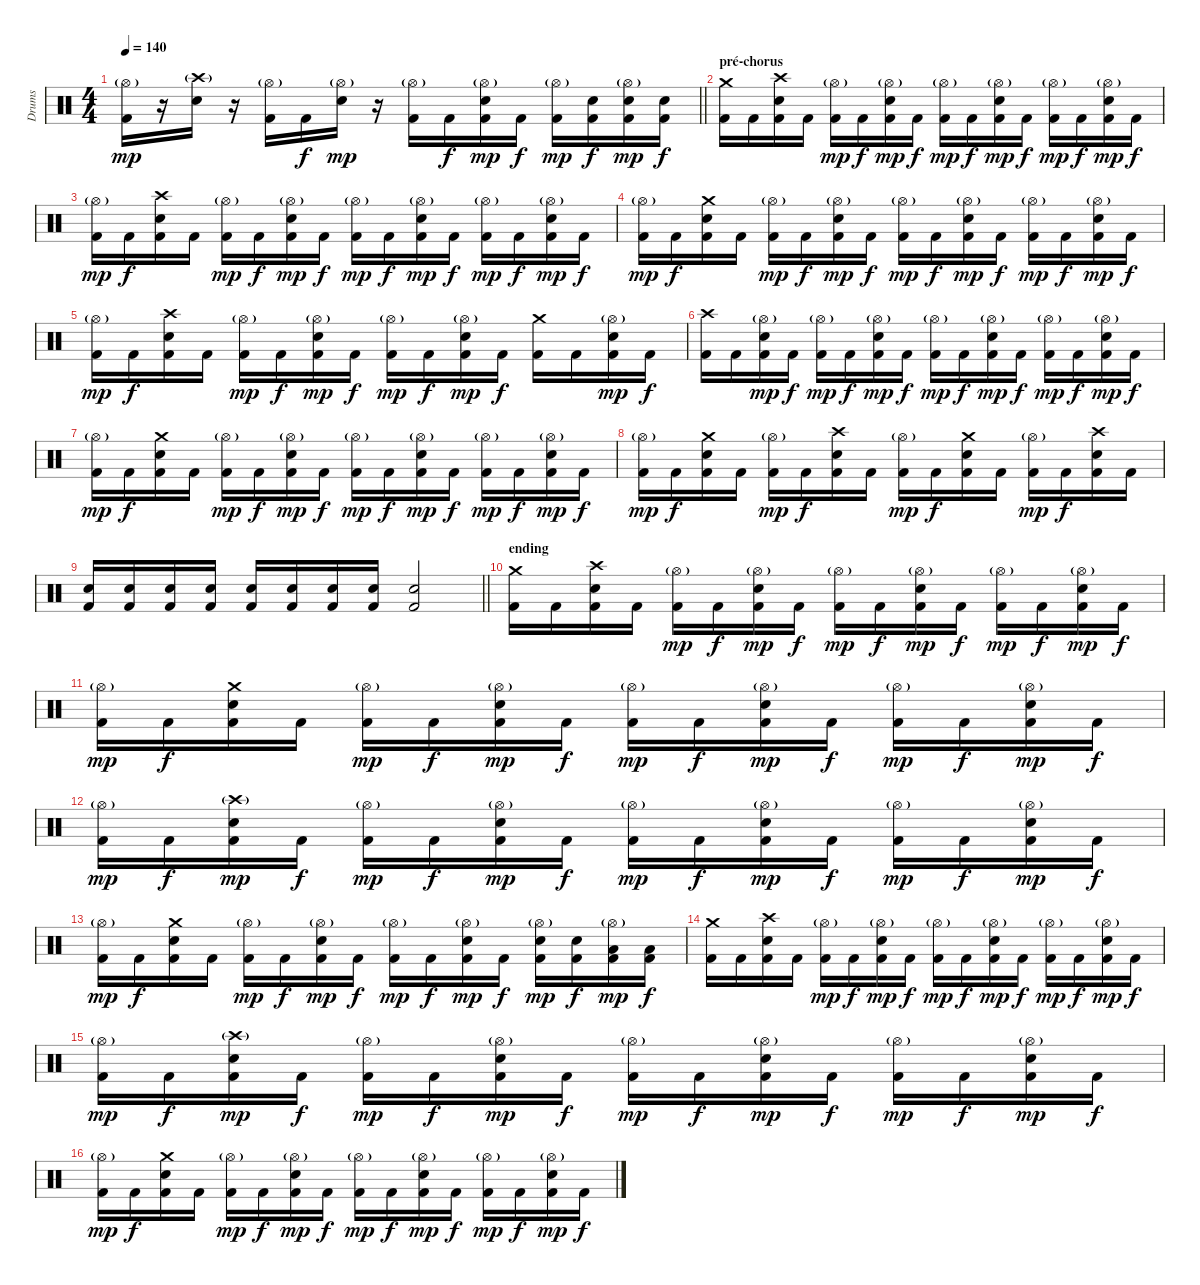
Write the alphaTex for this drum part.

\track ("Drums" "Drums") {instrument percussion}
\staff {score}
\articulation defaults
\ts (4 4)
\tempo 140
\clef neutral
\barLineRight lightlight
\ks c
("Hi-Hat (open)"{g} "Kick (hit) 2").16{dy mp} r.16 ("Crash high (hit)"{g} "Electric Snare (hit)").16 r.16 ("Hi-Hat (open)"{g} "Kick (hit) 2").16 "Kick (hit) 2".16{dy f} ("Hi-Hat (open)"{g} "Electric Snare (hit)").16{dy mp} r.16 ("Hi-Hat (open)"{g} "Kick (hit) 2").16 "Kick (hit) 2".16{dy f} ("Hi-Hat (open)"{g} "Electric Snare (hit)" "Kick (hit) 2").16{dy mp} "Kick (hit) 2".16{dy f} ("Hi-Hat (open)"{g} "Kick (hit) 2").16{dy mp} ("Electric Snare (hit)" "Kick (hit) 2").16{dy f} ("Hi-Hat (open)"{g} "Electric Snare (hit)" "Kick (hit) 2").16{dy mp} ("Electric Snare (hit)" "Kick (hit) 2").16{dy f} |
\section ("" "pré-chorus")
("Crash medium (hit)" "Kick (hit) 2").16 "Kick (hit) 2".16 ("Crash high (hit)" "Electric Snare (hit)" "Kick (hit) 2").16 "Kick (hit) 2".16 ("Hi-Hat (open)"{g} "Kick (hit) 2").16{dy mp} "Kick (hit) 2".16{dy f} ("Hi-Hat (open)"{g} "Electric Snare (hit)" "Kick (hit) 2").16{dy mp} "Kick (hit) 2".16{dy f} ("Hi-Hat (open)"{g} "Kick (hit) 2").16{dy mp} "Kick (hit) 2".16{dy f} ("Hi-Hat (open)"{g} "Electric Snare (hit)" "Kick (hit) 2").16{dy mp} "Kick (hit) 2".16{dy f} ("Hi-Hat (open)"{g} "Kick (hit) 2").16{dy mp} "Kick (hit) 2".16{dy f} ("Hi-Hat (open)"{g} "Electric Snare (hit)" "Kick (hit) 2").16{dy mp} "Kick (hit) 2".16{dy f} |
("Hi-Hat (open)"{g} "Kick (hit) 2").16{dy mp} "Kick (hit) 2".16{dy f} ("Crash high (hit)" "Electric Snare (hit)" "Kick (hit) 2").16 "Kick (hit) 2".16 ("Hi-Hat (open)"{g} "Kick (hit) 2").16{dy mp} "Kick (hit) 2".16{dy f} ("Hi-Hat (open)"{g} "Electric Snare (hit)" "Kick (hit) 2").16{dy mp} "Kick (hit) 2".16{dy f} ("Hi-Hat (open)"{g} "Kick (hit) 2").16{dy mp} "Kick (hit) 2".16{dy f} ("Hi-Hat (open)"{g} "Electric Snare (hit)" "Kick (hit) 2").16{dy mp} "Kick (hit) 2".16{dy f} ("Hi-Hat (open)"{g} "Kick (hit) 2").16{dy mp} "Kick (hit) 2".16{dy f} ("Hi-Hat (open)"{g} "Electric Snare (hit)" "Kick (hit) 2").16{dy mp} "Kick (hit) 2".16{dy f} |
("Hi-Hat (open)"{g} "Kick (hit) 2").16{dy mp} "Kick (hit) 2".16{dy f} ("Crash medium (hit)" "Electric Snare (hit)" "Kick (hit) 2").16 "Kick (hit) 2".16 ("Hi-Hat (open)"{g} "Kick (hit) 2").16{dy mp} "Kick (hit) 2".16{dy f} ("Hi-Hat (open)"{g} "Electric Snare (hit)" "Kick (hit) 2").16{dy mp} "Kick (hit) 2".16{dy f} ("Hi-Hat (open)"{g} "Kick (hit) 2").16{dy mp} "Kick (hit) 2".16{dy f} ("Hi-Hat (open)"{g} "Electric Snare (hit)" "Kick (hit) 2").16{dy mp} "Kick (hit) 2".16{dy f} ("Hi-Hat (open)"{g} "Kick (hit) 2").16{dy mp} "Kick (hit) 2".16{dy f} ("Hi-Hat (open)"{g} "Electric Snare (hit)" "Kick (hit) 2").16{dy mp} "Kick (hit) 2".16{dy f} |
("Hi-Hat (open)"{g} "Kick (hit) 2").16{dy mp} "Kick (hit) 2".16{dy f} ("Crash high (hit)" "Electric Snare (hit)" "Kick (hit) 2").16 "Kick (hit) 2".16 ("Hi-Hat (open)"{g} "Kick (hit) 2").16{dy mp} "Kick (hit) 2".16{dy f} ("Hi-Hat (open)"{g} "Electric Snare (hit)" "Kick (hit) 2").16{dy mp} "Kick (hit) 2".16{dy f} ("Hi-Hat (open)"{g} "Kick (hit) 2").16{dy mp} "Kick (hit) 2".16{dy f} ("Hi-Hat (open)"{g} "Electric Snare (hit)" "Kick (hit) 2").16{dy mp} "Kick (hit) 2".16{dy f} ("Crash medium (hit)" "Kick (hit) 2").16 "Kick (hit) 2".16 ("Hi-Hat (open)"{g} "Electric Snare (hit)" "Kick (hit) 2").16{dy mp} "Kick (hit) 2".16{dy f} |
("Crash high (hit)" "Kick (hit) 2").16 "Kick (hit) 2".16 ("Hi-Hat (open)"{g} "Electric Snare (hit)" "Kick (hit) 2").16{dy mp} "Kick (hit) 2".16{dy f} ("Hi-Hat (open)"{g} "Kick (hit) 2").16{dy mp} "Kick (hit) 2".16{dy f} ("Hi-Hat (open)"{g} "Electric Snare (hit)" "Kick (hit) 2").16{dy mp} "Kick (hit) 2".16{dy f} ("Hi-Hat (open)"{g} "Kick (hit) 2").16{dy mp} "Kick (hit) 2".16{dy f} ("Hi-Hat (open)"{g} "Electric Snare (hit)" "Kick (hit) 2").16{dy mp} "Kick (hit) 2".16{dy f} ("Hi-Hat (open)"{g} "Kick (hit) 2").16{dy mp} "Kick (hit) 2".16{dy f} ("Hi-Hat (open)"{g} "Electric Snare (hit)" "Kick (hit) 2").16{dy mp} "Kick (hit) 2".16{dy f} |
("Hi-Hat (open)"{g} "Kick (hit) 2").16{dy mp} "Kick (hit) 2".16{dy f} ("Crash medium (hit)" "Electric Snare (hit)" "Kick (hit) 2").16 "Kick (hit) 2".16 ("Hi-Hat (open)"{g} "Kick (hit) 2").16{dy mp} "Kick (hit) 2".16{dy f} ("Hi-Hat (open)"{g} "Electric Snare (hit)" "Kick (hit) 2").16{dy mp} "Kick (hit) 2".16{dy f} ("Hi-Hat (open)"{g} "Kick (hit) 2").16{dy mp} "Kick (hit) 2".16{dy f} ("Hi-Hat (open)"{g} "Electric Snare (hit)" "Kick (hit) 2").16{dy mp} "Kick (hit) 2".16{dy f} ("Hi-Hat (open)"{g} "Kick (hit) 2").16{dy mp} "Kick (hit) 2".16{dy f} ("Hi-Hat (open)"{g} "Electric Snare (hit)" "Kick (hit) 2").16{dy mp} "Kick (hit) 2".16{dy f} |
("Hi-Hat (open)"{g} "Kick (hit) 2").16{dy mp} "Kick (hit) 2".16{dy f} ("Crash medium (hit)" "Electric Snare (hit)" "Kick (hit) 2").16 "Kick (hit) 2".16 ("Hi-Hat (open)"{g} "Kick (hit) 2").16{dy mp} "Kick (hit) 2".16{dy f} ("Crash high (hit)" "Electric Snare (hit)" "Kick (hit) 2").16 "Kick (hit) 2".16 ("Hi-Hat (open)"{g} "Kick (hit) 2").16{dy mp} "Kick (hit) 2".16{dy f} ("Crash medium (hit)" "Electric Snare (hit)" "Kick (hit) 2").16 "Kick (hit) 2".16 ("Hi-Hat (open)"{g} "Kick (hit) 2").16{dy mp} "Kick (hit) 2".16{dy f} ("Crash high (hit)" "Electric Snare (hit)" "Kick (hit) 2").16 "Kick (hit) 2".16 |
\barLineRight lightlight
("Electric Snare (hit)" "Kick (hit) 2").16 ("Electric Snare (hit)" "Kick (hit) 2").16 ("Electric Snare (hit)" "Kick (hit) 2").16 ("Electric Snare (hit)" "Kick (hit) 2").16 ("Electric Snare (hit)" "Kick (hit) 2").16 ("Electric Snare (hit)" "Kick (hit) 2").16 ("Electric Snare (hit)" "Kick (hit) 2").16 ("Electric Snare (hit)" "Kick (hit) 2").16 ("Electric Snare (hit)" "Kick (hit) 2").2 |
\section ("" "ending")
("Crash medium (hit)" "Kick (hit) 2").16 "Kick (hit) 2".16 ("Crash high (hit)" "Electric Snare (hit)" "Kick (hit) 2").16 "Kick (hit) 2".16 ("Hi-Hat (open)"{g} "Kick (hit) 2").16{dy mp} "Kick (hit) 2".16{dy f} ("Hi-Hat (open)"{g} "Electric Snare (hit)" "Kick (hit) 2").16{dy mp} "Kick (hit) 2".16{dy f} ("Hi-Hat (open)"{g} "Kick (hit) 2").16{dy mp} "Kick (hit) 2".16{dy f} ("Hi-Hat (open)"{g} "Electric Snare (hit)" "Kick (hit) 2").16{dy mp} "Kick (hit) 2".16{dy f} ("Hi-Hat (open)"{g} "Kick (hit) 2").16{dy mp} "Kick (hit) 2".16{dy f} ("Hi-Hat (open)"{g} "Electric Snare (hit)" "Kick (hit) 2").16{dy mp} "Kick (hit) 2".16{dy f} |
("Hi-Hat (open)"{g} "Kick (hit) 2").16{dy mp} "Kick (hit) 2".16{dy f} ("Crash medium (hit)" "Electric Snare (hit)" "Kick (hit) 2").16 "Kick (hit) 2".16 ("Hi-Hat (open)"{g} "Kick (hit) 2").16{dy mp} "Kick (hit) 2".16{dy f} ("Hi-Hat (open)"{g} "Electric Snare (hit)" "Kick (hit) 2").16{dy mp} "Kick (hit) 2".16{dy f} ("Hi-Hat (open)"{g} "Kick (hit) 2").16{dy mp} "Kick (hit) 2".16{dy f} ("Hi-Hat (open)"{g} "Electric Snare (hit)" "Kick (hit) 2").16{dy mp} "Kick (hit) 2".16{dy f} ("Hi-Hat (open)"{g} "Kick (hit) 2").16{dy mp} "Kick (hit) 2".16{dy f} ("Hi-Hat (open)"{g} "Electric Snare (hit)" "Kick (hit) 2").16{dy mp} "Kick (hit) 2".16{dy f} |
("Hi-Hat (open)"{g} "Kick (hit) 2").16{dy mp} "Kick (hit) 2".16{dy f} ("Crash high (hit)"{g} "Electric Snare (hit)" "Kick (hit) 2").16{dy mp} "Kick (hit) 2".16{dy f} ("Hi-Hat (open)"{g} "Kick (hit) 2").16{dy mp} "Kick (hit) 2".16{dy f} ("Hi-Hat (open)"{g} "Electric Snare (hit)" "Kick (hit) 2").16{dy mp} "Kick (hit) 2".16{dy f} ("Hi-Hat (open)"{g} "Kick (hit) 2").16{dy mp} "Kick (hit) 2".16{dy f} ("Hi-Hat (open)"{g} "Electric Snare (hit)" "Kick (hit) 2").16{dy mp} "Kick (hit) 2".16{dy f} ("Hi-Hat (open)"{g} "Kick (hit) 2").16{dy mp} "Kick (hit) 2".16{dy f} ("Hi-Hat (open)"{g} "Electric Snare (hit)" "Kick (hit) 2").16{dy mp} "Kick (hit) 2".16{dy f} |
("Hi-Hat (open)"{g} "Kick (hit) 2").16{dy mp} "Kick (hit) 2".16{dy f} ("Crash medium (hit)" "Electric Snare (hit)" "Kick (hit) 2").16 "Kick (hit) 2".16 ("Hi-Hat (open)"{g} "Kick (hit) 2").16{dy mp} "Kick (hit) 2".16{dy f} ("Hi-Hat (open)"{g} "Electric Snare (hit)" "Kick (hit) 2").16{dy mp} "Kick (hit) 2".16{dy f} ("Hi-Hat (open)"{g} "Kick (hit) 2").16{dy mp} "Kick (hit) 2".16{dy f} ("Hi-Hat (open)"{g} "Electric Snare (hit)" "Kick (hit) 2").16{dy mp} "Kick (hit) 2".16{dy f} ("Hi-Hat (open)"{g} "Electric Snare (hit)" "Kick (hit) 2").16{dy mp} ("Electric Snare (hit)" "Kick (hit) 2").16{dy f} ("Hi-Hat (open)"{g} "Low Tom (hit)" "Kick (hit) 2").16{dy mp} ("Low Tom (hit)" "Kick (hit) 2").16{dy f} |
("Crash medium (hit)" "Kick (hit) 2").16 "Kick (hit) 2".16 ("Crash high (hit)" "Electric Snare (hit)" "Kick (hit) 2").16 "Kick (hit) 2".16 ("Hi-Hat (open)"{g} "Kick (hit) 2").16{dy mp} "Kick (hit) 2".16{dy f} ("Hi-Hat (open)"{g} "Electric Snare (hit)" "Kick (hit) 2").16{dy mp} "Kick (hit) 2".16{dy f} ("Hi-Hat (open)"{g} "Kick (hit) 2").16{dy mp} "Kick (hit) 2".16{dy f} ("Hi-Hat (open)"{g} "Electric Snare (hit)" "Kick (hit) 2").16{dy mp} "Kick (hit) 2".16{dy f} ("Hi-Hat (open)"{g} "Kick (hit) 2").16{dy mp} "Kick (hit) 2".16{dy f} ("Hi-Hat (open)"{g} "Electric Snare (hit)" "Kick (hit) 2").16{dy mp} "Kick (hit) 2".16{dy f} |
("Hi-Hat (open)"{g} "Kick (hit) 2").16{dy mp} "Kick (hit) 2".16{dy f} ("Crash high (hit)"{g} "Electric Snare (hit)" "Kick (hit) 2").16{dy mp} "Kick (hit) 2".16{dy f} ("Hi-Hat (open)"{g} "Kick (hit) 2").16{dy mp} "Kick (hit) 2".16{dy f} ("Hi-Hat (open)"{g} "Electric Snare (hit)" "Kick (hit) 2").16{dy mp} "Kick (hit) 2".16{dy f} ("Hi-Hat (open)"{g} "Kick (hit) 2").16{dy mp} "Kick (hit) 2".16{dy f} ("Hi-Hat (open)"{g} "Electric Snare (hit)" "Kick (hit) 2").16{dy mp} "Kick (hit) 2".16{dy f} ("Hi-Hat (open)"{g} "Kick (hit) 2").16{dy mp} "Kick (hit) 2".16{dy f} ("Hi-Hat (open)"{g} "Electric Snare (hit)" "Kick (hit) 2").16{dy mp} "Kick (hit) 2".16{dy f} |
("Hi-Hat (open)"{g} "Kick (hit) 2").16{dy mp} "Kick (hit) 2".16{dy f} ("Crash medium (hit)" "Electric Snare (hit)" "Kick (hit) 2").16 "Kick (hit) 2".16 ("Hi-Hat (open)"{g} "Kick (hit) 2").16{dy mp} "Kick (hit) 2".16{dy f} ("Hi-Hat (open)"{g} "Electric Snare (hit)" "Kick (hit) 2").16{dy mp} "Kick (hit) 2".16{dy f} ("Hi-Hat (open)"{g} "Kick (hit) 2").16{dy mp} "Kick (hit) 2".16{dy f} ("Hi-Hat (open)"{g} "Electric Snare (hit)" "Kick (hit) 2").16{dy mp} "Kick (hit) 2".16{dy f} ("Hi-Hat (open)"{g} "Kick (hit) 2").16{dy mp} "Kick (hit) 2".16{dy f} ("Hi-Hat (open)"{g} "Electric Snare (hit)" "Kick (hit) 2").16{dy mp} "Kick (hit) 2".16{dy f}
